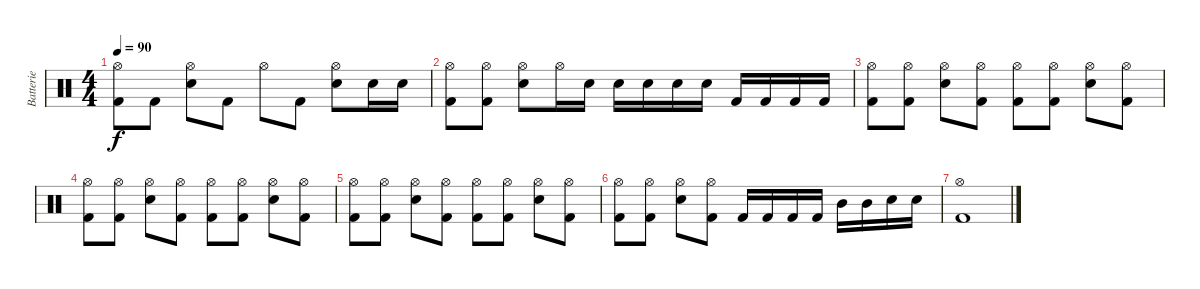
\track ("Batterie" "Batterie") {instrument percussion}
\staff {score}
\articulation defaults
\ts (4 4)
\tempo 90
\clef neutral
\ks c
("Hi-Hat (open)" "Kick (hit) 2").8{dy f} "Kick (hit) 2".8 ("Hi-Hat (open)" "Electric Snare (hit)").8 "Kick (hit) 2".8 "Hi-Hat (open)".8 "Kick (hit) 2".8 ("Hi-Hat (open)" "Electric Snare (hit)").8 "Electric Snare (hit)".16 "Electric Snare (hit)".16 |
("Hi-Hat (open)" "Kick (hit) 2").8 ("Hi-Hat (open)" "Kick (hit) 2").8 ("Hi-Hat (open)" "Electric Snare (hit)").8 "Hi-Hat (open)".16 "Electric Snare (hit)".16 "Electric Snare (hit)".16 "Electric Snare (hit)".16 "Electric Snare (hit)".16 "Electric Snare (hit)".16 "Kick (hit) 2".16 "Kick (hit) 2".16 "Kick (hit) 2".16 "Kick (hit) 2".16 |
("Hi-Hat (open)" "Kick (hit) 2").8 ("Hi-Hat (open)" "Kick (hit) 2").8 ("Hi-Hat (open)" "Electric Snare (hit)").8 ("Hi-Hat (open)" "Kick (hit) 2").8 ("Hi-Hat (open)" "Kick (hit) 2").8 ("Hi-Hat (open)" "Kick (hit) 2").8 ("Hi-Hat (open)" "Electric Snare (hit)").8 ("Hi-Hat (open)" "Kick (hit) 2").8 |
("Hi-Hat (open)" "Kick (hit) 2").8 ("Hi-Hat (open)" "Kick (hit) 2").8 ("Hi-Hat (open)" "Electric Snare (hit)").8 ("Hi-Hat (open)" "Kick (hit) 2").8 ("Hi-Hat (open)" "Kick (hit) 2").8 ("Hi-Hat (open)" "Kick (hit) 2").8 ("Hi-Hat (open)" "Electric Snare (hit)").8 ("Hi-Hat (open)" "Kick (hit) 2").8 |
("Hi-Hat (open)" "Kick (hit) 2").8 ("Hi-Hat (open)" "Kick (hit) 2").8 ("Hi-Hat (open)" "Electric Snare (hit)").8 ("Hi-Hat (open)" "Kick (hit) 2").8 ("Hi-Hat (open)" "Kick (hit) 2").8 ("Hi-Hat (open)" "Kick (hit) 2").8 ("Hi-Hat (open)" "Electric Snare (hit)").8 ("Hi-Hat (open)" "Kick (hit) 2").8 |
("Hi-Hat (open)" "Kick (hit) 2").8 ("Hi-Hat (open)" "Kick (hit) 2").8 ("Hi-Hat (open)" "Electric Snare (hit)").8 ("Hi-Hat (open)" "Kick (hit) 2").8 "Kick (hit) 2".16 "Kick (hit) 2".16 "Kick (hit) 2".16 "Kick (hit) 2".16 "Mid Tom (hit)".16 "Mid Tom (hit)".16 "Electric Snare (hit)".16 "Electric Snare (hit)".16 |
("Hi-Hat (open)" "Kick (hit) 2").1
